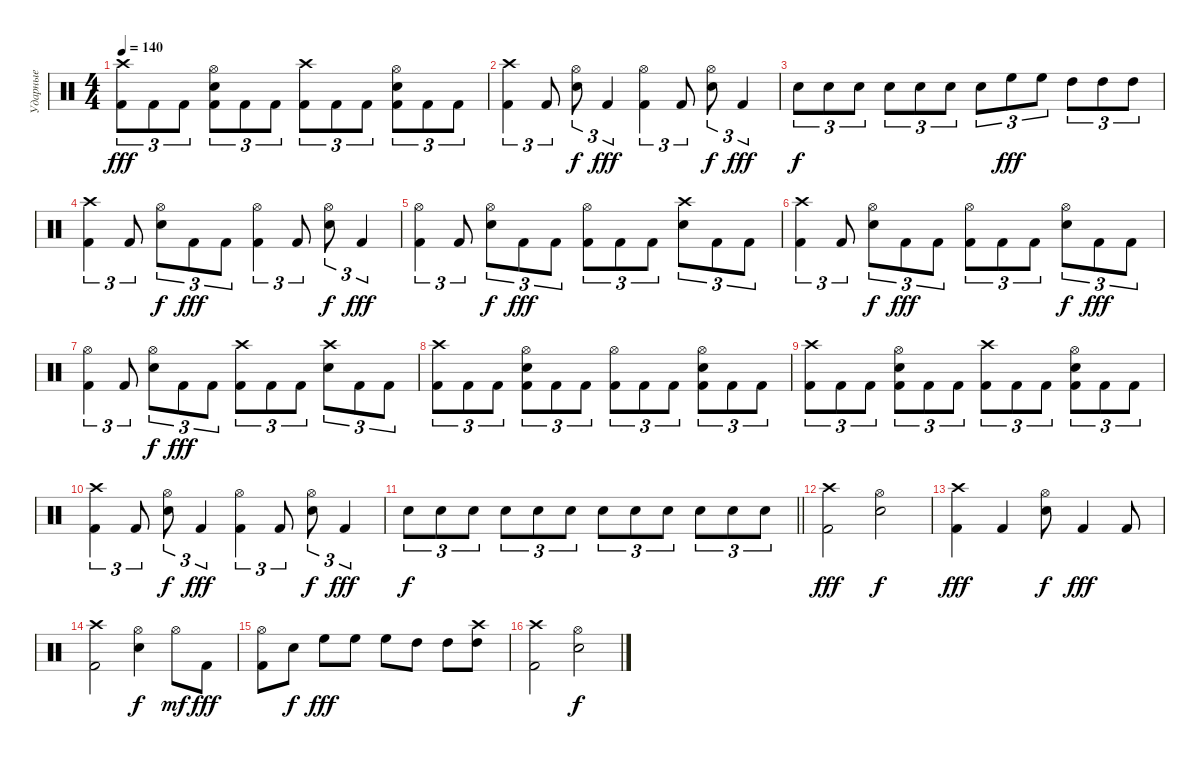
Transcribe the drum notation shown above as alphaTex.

\track ("Ударные" "Ударные") {instrument percussion}
\staff {score}
\articulation defaults
\ts (4 4)
\tempo 140
\clef neutral
\ks c
("Kick (hit) 2" "Crash high (hit)").8{tu (3 2) dy fff} "Kick (hit) 2".8{tu (3 2)} "Kick (hit) 2".8{tu (3 2)} ("Kick (hit) 2" "Snare (hit) 2" "Hi-Hat (open)").8{tu (3 2)} "Kick (hit) 2".8{tu (3 2)} "Kick (hit) 2".8{tu (3 2)} ("Kick (hit) 2" "Crash high (hit)").8{tu (3 2)} "Kick (hit) 2".8{tu (3 2)} "Kick (hit) 2".8{tu (3 2)} ("Kick (hit) 2" "Snare (hit) 2" "Hi-Hat (open)").8{tu (3 2)} "Kick (hit) 2".8{tu (3 2)} "Kick (hit) 2".8{tu (3 2)} |
("Kick (hit) 2" "Crash high (hit)").4{tu (3 2)} "Kick (hit) 2".8{tu (3 2)} ("Snare (hit) 2" "Hi-Hat (open)").8{tu (3 2) dy f} "Kick (hit) 2".4{tu (3 2) dy fff} ("Kick (hit) 2" "Hi-Hat (open)").4{tu (3 2)} "Kick (hit) 2".8{tu (3 2)} ("Snare (hit) 2" "Hi-Hat (open)").8{tu (3 2) dy f} "Kick (hit) 2".4{tu (3 2) dy fff} |
"Snare (hit) 2".8{tu (3 2) dy f} "Electric Snare (hit)".8{tu (3 2)} "Electric Snare (hit)".8{tu (3 2)} "Electric Snare (hit)".8{tu (3 2)} "Snare (hit) 2".8{tu (3 2)} "Electric Snare (hit)".8{tu (3 2)} "Snare (hit) 2".8{tu (3 2)} "High Floor Tom (hit)".8{tu (3 2) dy fff} "High Floor Tom (hit)".8{tu (3 2)} "High Tom (hit)".8{tu (3 2)} "High Tom (hit)".8{tu (3 2)} "High Tom (hit)".8{tu (3 2)} |
("Kick (hit) 2" "Crash high (hit)").4{tu (3 2)} "Kick (hit) 2".8{tu (3 2)} ("Snare (hit) 2" "Hi-Hat (open)").8{tu (3 2) dy f} "Kick (hit) 2".8{tu (3 2) dy fff} "Kick (hit) 2".8{tu (3 2)} ("Kick (hit) 2" "Hi-Hat (open)").4{tu (3 2)} "Kick (hit) 2".8{tu (3 2)} ("Snare (hit) 2" "Hi-Hat (open)").8{tu (3 2) dy f} "Kick (hit) 2".4{tu (3 2) dy fff} |
("Kick (hit) 2" "Hi-Hat (open)").4{tu (3 2)} "Kick (hit) 2".8{tu (3 2)} ("Snare (hit) 2" "Hi-Hat (open)").8{tu (3 2) dy f} "Kick (hit) 2".8{tu (3 2) dy fff} "Kick (hit) 2".8{tu (3 2)} ("Kick (hit) 2" "Hi-Hat (open)").8{tu (3 2)} "Kick (hit) 2".8{tu (3 2)} "Kick (hit) 2".8{tu (3 2)} ("Snare (hit) 2" "Crash high (hit)").8{tu (3 2)} "Kick (hit) 2".8{tu (3 2)} "Kick (hit) 2".8{tu (3 2)} |
("Kick (hit) 2" "Crash high (hit)").4{tu (3 2)} "Kick (hit) 2".8{tu (3 2)} ("Snare (hit) 2" "Hi-Hat (open)").8{tu (3 2) dy f} "Kick (hit) 2".8{tu (3 2) dy fff} "Kick (hit) 2".8{tu (3 2)} ("Kick (hit) 2" "Hi-Hat (open)").8{tu (3 2)} "Kick (hit) 2".8{tu (3 2)} "Kick (hit) 2".8{tu (3 2)} ("Snare (hit) 2" "Hi-Hat (open)").8{tu (3 2) dy f} "Kick (hit) 2".8{tu (3 2) dy fff} "Kick (hit) 2".8{tu (3 2)} |
("Kick (hit) 2" "Hi-Hat (open)").4{tu (3 2)} "Kick (hit) 2".8{tu (3 2)} ("Snare (hit) 2" "Hi-Hat (open)").8{tu (3 2) dy f} "Kick (hit) 2".8{tu (3 2) dy fff} "Kick (hit) 2".8{tu (3 2)} ("Kick (hit) 2" "Crash high (hit)").8{tu (3 2)} "Kick (hit) 2".8{tu (3 2)} "Kick (hit) 2".8{tu (3 2)} ("Snare (hit) 2" "Crash high (hit)").8{tu (3 2)} "Kick (hit) 2".8{tu (3 2)} "Kick (hit) 2".8{tu (3 2)} |
("Kick (hit) 2" "Crash high (hit)").8{tu (3 2)} "Kick (hit) 2".8{tu (3 2)} "Kick (hit) 2".8{tu (3 2)} ("Kick (hit) 2" "Snare (hit) 2" "Hi-Hat (open)").8{tu (3 2)} "Kick (hit) 2".8{tu (3 2)} "Kick (hit) 2".8{tu (3 2)} ("Kick (hit) 2" "Hi-Hat (open)").8{tu (3 2)} "Kick (hit) 2".8{tu (3 2)} "Kick (hit) 2".8{tu (3 2)} ("Kick (hit) 2" "Snare (hit) 2" "Hi-Hat (open)").8{tu (3 2)} "Kick (hit) 2".8{tu (3 2)} "Kick (hit) 2".8{tu (3 2)} |
("Kick (hit) 2" "Crash high (hit)").8{tu (3 2)} "Kick (hit) 2".8{tu (3 2)} "Kick (hit) 2".8{tu (3 2)} ("Kick (hit) 2" "Snare (hit) 2" "Hi-Hat (open)").8{tu (3 2)} "Kick (hit) 2".8{tu (3 2)} "Kick (hit) 2".8{tu (3 2)} ("Kick (hit) 2" "Crash high (hit)").8{tu (3 2)} "Kick (hit) 2".8{tu (3 2)} "Kick (hit) 2".8{tu (3 2)} ("Kick (hit) 2" "Snare (hit) 2" "Hi-Hat (open)").8{tu (3 2)} "Kick (hit) 2".8{tu (3 2)} "Kick (hit) 2".8{tu (3 2)} |
("Kick (hit) 2" "Crash high (hit)").4{tu (3 2)} "Kick (hit) 2".8{tu (3 2)} ("Snare (hit) 2" "Hi-Hat (open)").8{tu (3 2) dy f} "Kick (hit) 2".4{tu (3 2) dy fff} ("Kick (hit) 2" "Hi-Hat (open)").4{tu (3 2)} "Kick (hit) 2".8{tu (3 2)} ("Snare (hit) 2" "Hi-Hat (open)").8{tu (3 2) dy f} "Kick (hit) 2".4{tu (3 2) dy fff} |
\barLineRight lightlight "Snare (hit) 2".8{tu (3 2) dy f} "Snare (hit) 2".8{tu (3 2)} "Snare (hit) 2".8{tu (3 2)} "Snare (hit) 2".8{tu (3 2)} "Snare (hit) 2".8{tu (3 2)} "Snare (hit) 2".8{tu (3 2)} "Snare (hit) 2".8{tu (3 2)} "Snare (hit) 2".8{tu (3 2)} "Snare (hit) 2".8{tu (3 2)} "Snare (hit) 2".8{tu (3 2)} "Snare (hit) 2".8{tu (3 2)} "Snare (hit) 2".8{tu (3 2)}
|
("Kick (hit) 2" "Crash high (hit)").2{dy fff} ("Snare (hit) 2" "Hi-Hat (open)").2{dy f} |
("Kick (hit) 2" "Crash high (hit)").4{dy fff} "Kick (hit) 2".4 ("Snare (hit) 2" "Hi-Hat (open)").8{dy f} "Kick (hit) 2".4{dy fff} "Kick (hit) 2".8 |
("Kick (hit) 2" "Crash high (hit)").2 ("Snare (hit) 2" "Hi-Hat (open)").4{dy f} "Hi-Hat (open)".8{dy mf} "Kick (hit) 2".8{dy fff} |
("Kick (hit) 2" "Hi-Hat (open)").8 "Snare (hit) 2".8{dy f} "High Floor Tom (hit)".8{dy fff} "High Floor Tom (hit)".8 "High Floor Tom (hit)".8 "High Tom (hit)".8 "High Tom (hit)".8 ("High Tom (hit)" "Crash high (hit)").8 |
("Kick (hit) 2" "Crash high (hit)").2 ("Snare (hit) 2" "Hi-Hat (open)").2{dy f}
